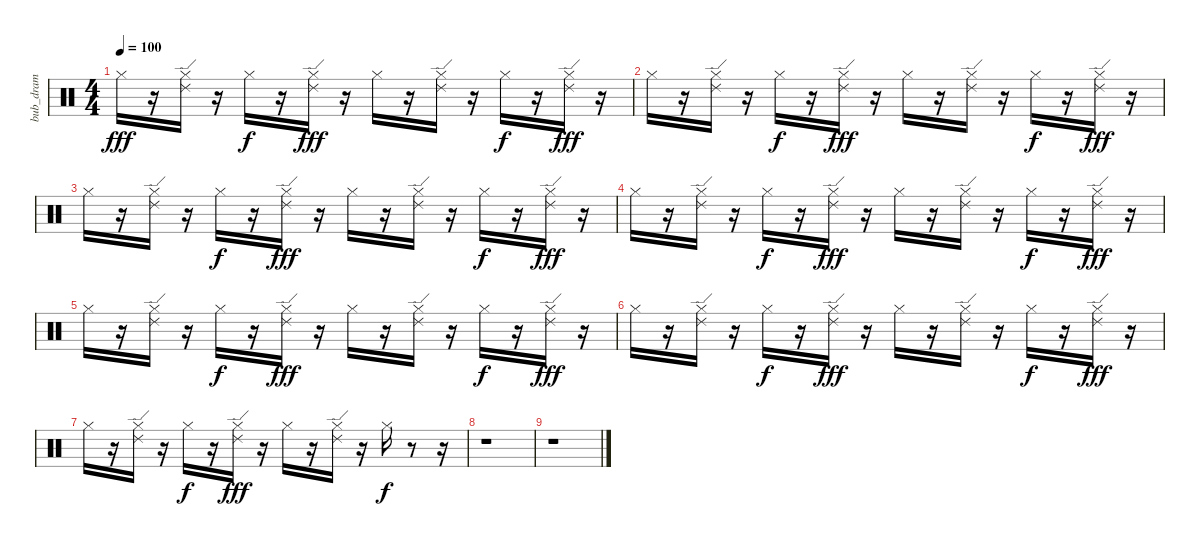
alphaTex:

\track ("bub_dram" "bub_dram") {instrument percussion}
\staff {score}
\articulation defaults
\ts (4 4)
\tempo 100
\clef neutral
\ks c "Hi-Hat (closed)".16{dy fff}
r.16 ("Ride (edge) 2" "Hi-Hat (closed)").16 r.16 "Hi-Hat (closed)".16{dy f} r.16 ("Ride (edge) 2" "Hi-Hat (closed)").16{dy fff} r.16 "Hi-Hat (closed)".16 r.16 ("Ride (edge) 2" "Hi-Hat (closed)").16 r.16 "Hi-Hat (closed)".16{dy f} r.16 ("Ride (edge) 2" "Hi-Hat (closed)").16{dy fff} r.16 |
"Hi-Hat (closed)".16 r.16 ("Ride (edge) 2" "Hi-Hat (closed)").16 r.16 "Hi-Hat (closed)".16{dy f} r.16 ("Ride (edge) 2" "Hi-Hat (closed)").16{dy fff} r.16 "Hi-Hat (closed)".16 r.16 ("Ride (edge) 2" "Hi-Hat (closed)").16 r.16 "Hi-Hat (closed)".16{dy f} r.16 ("Ride (edge) 2" "Hi-Hat (closed)").16{dy fff} r.16 |
"Hi-Hat (closed)".16 r.16 ("Ride (edge) 2" "Hi-Hat (closed)").16 r.16 "Hi-Hat (closed)".16{dy f} r.16 ("Ride (edge) 2" "Hi-Hat (closed)").16{dy fff} r.16 "Hi-Hat (closed)".16 r.16 ("Ride (edge) 2" "Hi-Hat (closed)").16 r.16 "Hi-Hat (closed)".16{dy f} r.16 ("Ride (edge) 2" "Hi-Hat (closed)").16{dy fff} r.16 |
"Hi-Hat (closed)".16 r.16 ("Ride (edge) 2" "Hi-Hat (closed)").16 r.16 "Hi-Hat (closed)".16{dy f} r.16 ("Ride (edge) 2" "Hi-Hat (closed)").16{dy fff} r.16 "Hi-Hat (closed)".16 r.16 ("Ride (edge) 2" "Hi-Hat (closed)").16 r.16 "Hi-Hat (closed)".16{dy f} r.16 ("Ride (edge) 2" "Hi-Hat (closed)").16{dy fff} r.16 |
"Hi-Hat (closed)".16 r.16 ("Ride (edge) 2" "Hi-Hat (closed)").16 r.16 "Hi-Hat (closed)".16{dy f} r.16 ("Ride (edge) 2" "Hi-Hat (closed)").16{dy fff} r.16 "Hi-Hat (closed)".16 r.16 ("Ride (edge) 2" "Hi-Hat (closed)").16 r.16 "Hi-Hat (closed)".16{dy f} r.16 ("Ride (edge) 2" "Hi-Hat (closed)").16{dy fff} r.16 |
"Hi-Hat (closed)".16 r.16 ("Ride (edge) 2" "Hi-Hat (closed)").16 r.16 "Hi-Hat (closed)".16{dy f} r.16 ("Ride (edge) 2" "Hi-Hat (closed)").16{dy fff} r.16 "Hi-Hat (closed)".16 r.16 ("Ride (edge) 2" "Hi-Hat (closed)").16 r.16 "Hi-Hat (closed)".16{dy f} r.16 ("Ride (edge) 2" "Hi-Hat (closed)").16{dy fff} r.16 |
"Hi-Hat (closed)".16 r.16 ("Ride (edge) 2" "Hi-Hat (closed)").16 r.16 "Hi-Hat (closed)".16{dy f} r.16 ("Ride (edge) 2" "Hi-Hat (closed)").16{dy fff} r.16 "Hi-Hat (closed)".16 r.16 ("Ride (edge) 2" "Hi-Hat (closed)").16 r.16 "Hi-Hat (closed)".16{dy f} r.8 r.16 |
r.1 |
r.1
